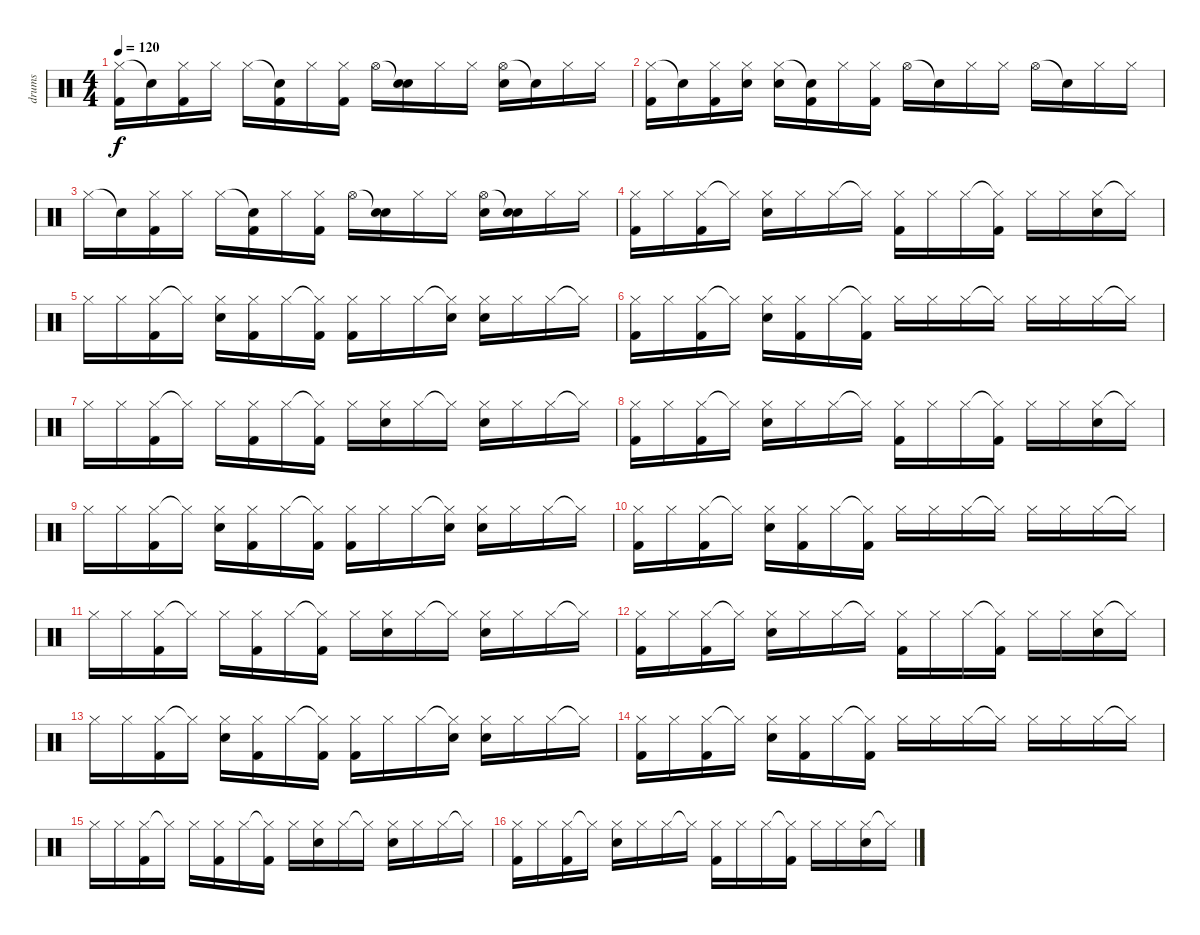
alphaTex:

\track ("drums" "drums") {instrument percussion}
\staff {score}
\articulation defaults
\ts (4 4)
\tempo 120
\clef neutral
\ks c
("Hi-Hat (closed)" "Kick (hit) 2").16{dy f} "Snare (hit)"{t}.16 ("Hi-Hat (closed)" "Kick (hit) 2").16 "Hi-Hat (closed)".16 "Hi-Hat (closed)".16 ("Snare (hit)"{t} "Kick (hit) 2").16 "Hi-Hat (closed)".16 ("Hi-Hat (closed)" "Kick (hit) 2").16 "Hi-Hat (open)".16 ("Snare (hit)"{t} "Snare (hit) 2").16 "Hi-Hat (closed)".16 "Hi-Hat (closed)".16 ("Hi-Hat (open)" "Snare (hit) 2").16 "Snare (hit)"{t}.16 "Hi-Hat (closed)".16 "Hi-Hat (closed)".16 |
("Hi-Hat (closed)" "Kick (hit) 2").16 "Snare (hit)"{t}.16 ("Hi-Hat (closed)" "Kick (hit) 2").16 ("Hi-Hat (closed)" "Snare (hit) 2").16 ("Hi-Hat (closed)" "Snare (hit) 2").16 ("Snare (hit)"{t} "Kick (hit) 2").16 "Hi-Hat (closed)".16 ("Hi-Hat (closed)" "Kick (hit) 2").16 "Hi-Hat (open)".16 "Snare (hit)"{t}.16 "Hi-Hat (closed)".16 "Hi-Hat (closed)".16 "Hi-Hat (open)".16 "Snare (hit)"{t}.16 "Hi-Hat (closed)".16 "Hi-Hat (closed)".16 |
"Hi-Hat (closed)".16 "Snare (hit)"{t}.16 ("Hi-Hat (closed)" "Kick (hit) 2").16 "Hi-Hat (closed)".16 "Hi-Hat (closed)".16 ("Snare (hit)"{t} "Kick (hit) 2").16 "Hi-Hat (closed)".16 ("Hi-Hat (closed)" "Kick (hit) 2").16 "Hi-Hat (open)".16 ("Snare (hit)"{t} "Snare (hit) 2").16 "Hi-Hat (closed)".16 "Hi-Hat (closed)".16 ("Hi-Hat (open)" "Snare (hit) 2").16 ("Snare (hit)"{t} "Snare (hit) 2").16 "Hi-Hat (closed)".16 "Hi-Hat (closed)".16 |
("Hi-Hat (closed)" "Kick (hit) 2").16 "Hi-Hat (closed)".16 ("Hi-Hat (closed)" "Kick (hit) 2").16 "Hi-Hat (closed)"{t}.16 ("Hi-Hat (closed)" "Snare (hit) 2").16 "Hi-Hat (closed)".16 "Hi-Hat (closed)".16 "Hi-Hat (closed)"{t}.16 ("Hi-Hat (closed)" "Kick (hit) 2").16 "Hi-Hat (closed)".16 "Hi-Hat (closed)".16 ("Hi-Hat (closed)"{t} "Kick (hit) 2").16 "Hi-Hat (closed)".16 "Hi-Hat (closed)".16 ("Hi-Hat (closed)" "Snare (hit) 2").16 "Hi-Hat (closed)"{t}.16 |
"Hi-Hat (closed)".16 "Hi-Hat (closed)".16 ("Hi-Hat (closed)" "Kick (hit) 2").16 "Hi-Hat (closed)"{t}.16 ("Hi-Hat (closed)" "Snare (hit) 2").16 ("Hi-Hat (closed)" "Kick (hit) 2").16 "Hi-Hat (closed)".16 ("Hi-Hat (closed)"{t} "Kick (hit) 2").16 ("Hi-Hat (closed)" "Kick (hit) 2").16 "Hi-Hat (closed)".16 "Hi-Hat (closed)".16 ("Hi-Hat (closed)"{t} "Snare (hit) 2").16 ("Hi-Hat (closed)" "Snare (hit) 2").16 "Hi-Hat (closed)".16 "Hi-Hat (closed)".16 "Hi-Hat (closed)"{t}.16 |
("Hi-Hat (closed)" "Kick (hit) 2").16 "Hi-Hat (closed)".16 ("Hi-Hat (closed)" "Kick (hit) 2").16 "Hi-Hat (closed)"{t}.16 ("Hi-Hat (closed)" "Snare (hit) 2").16 ("Hi-Hat (closed)" "Kick (hit) 2").16 "Hi-Hat (closed)".16 ("Hi-Hat (closed)"{t} "Kick (hit) 2").16 "Hi-Hat (closed)".16 "Hi-Hat (closed)".16 "Hi-Hat (closed)".16 "Hi-Hat (closed)"{t}.16 "Hi-Hat (closed)".16 "Hi-Hat (closed)".16 "Hi-Hat (closed)".16 "Hi-Hat (closed)"{t}.16 |
"Hi-Hat (closed)".16 "Hi-Hat (closed)".16 ("Hi-Hat (closed)" "Kick (hit) 2").16 "Hi-Hat (closed)"{t}.16 "Hi-Hat (closed)".16 ("Hi-Hat (closed)" "Kick (hit) 2").16 "Hi-Hat (closed)".16 ("Hi-Hat (closed)"{t} "Kick (hit) 2").16 "Hi-Hat (closed)".16 ("Hi-Hat (closed)" "Snare (hit) 2").16 "Hi-Hat (closed)".16 "Hi-Hat (closed)"{t}.16 ("Hi-Hat (closed)" "Snare (hit) 2").16 "Hi-Hat (closed)".16 "Hi-Hat (closed)".16 "Hi-Hat (closed)"{t}.16 |
("Hi-Hat (closed)" "Kick (hit) 2").16 "Hi-Hat (closed)".16 ("Hi-Hat (closed)" "Kick (hit) 2").16 "Hi-Hat (closed)"{t}.16 ("Hi-Hat (closed)" "Snare (hit) 2").16 "Hi-Hat (closed)".16 "Hi-Hat (closed)".16 "Hi-Hat (closed)"{t}.16 ("Hi-Hat (closed)" "Kick (hit) 2").16 "Hi-Hat (closed)".16 "Hi-Hat (closed)".16 ("Hi-Hat (closed)"{t} "Kick (hit) 2").16 "Hi-Hat (closed)".16 "Hi-Hat (closed)".16 ("Hi-Hat (closed)" "Snare (hit) 2").16 "Hi-Hat (closed)"{t}.16 |
"Hi-Hat (closed)".16 "Hi-Hat (closed)".16 ("Hi-Hat (closed)" "Kick (hit) 2").16 "Hi-Hat (closed)"{t}.16 ("Hi-Hat (closed)" "Snare (hit) 2").16 ("Hi-Hat (closed)" "Kick (hit) 2").16 "Hi-Hat (closed)".16 ("Hi-Hat (closed)"{t} "Kick (hit) 2").16 ("Hi-Hat (closed)" "Kick (hit) 2").16 "Hi-Hat (closed)".16 "Hi-Hat (closed)".16 ("Hi-Hat (closed)"{t} "Snare (hit) 2").16 ("Hi-Hat (closed)" "Snare (hit) 2").16 "Hi-Hat (closed)".16 "Hi-Hat (closed)".16 "Hi-Hat (closed)"{t}.16 |
("Hi-Hat (closed)" "Kick (hit) 2").16 "Hi-Hat (closed)".16 ("Hi-Hat (closed)" "Kick (hit) 2").16 "Hi-Hat (closed)"{t}.16 ("Hi-Hat (closed)" "Snare (hit) 2").16 ("Hi-Hat (closed)" "Kick (hit) 2").16 "Hi-Hat (closed)".16 ("Hi-Hat (closed)"{t} "Kick (hit) 2").16 "Hi-Hat (closed)".16 "Hi-Hat (closed)".16 "Hi-Hat (closed)".16 "Hi-Hat (closed)"{t}.16 "Hi-Hat (closed)".16 "Hi-Hat (closed)".16 "Hi-Hat (closed)".16 "Hi-Hat (closed)"{t}.16 |
"Hi-Hat (closed)".16 "Hi-Hat (closed)".16 ("Hi-Hat (closed)" "Kick (hit) 2").16 "Hi-Hat (closed)"{t}.16 "Hi-Hat (closed)".16 ("Hi-Hat (closed)" "Kick (hit) 2").16 "Hi-Hat (closed)".16 ("Hi-Hat (closed)"{t} "Kick (hit) 2").16 "Hi-Hat (closed)".16 ("Hi-Hat (closed)" "Snare (hit) 2").16 "Hi-Hat (closed)".16 "Hi-Hat (closed)"{t}.16 ("Hi-Hat (closed)" "Snare (hit) 2").16 "Hi-Hat (closed)".16 "Hi-Hat (closed)".16 "Hi-Hat (closed)"{t}.16 |
("Hi-Hat (closed)" "Kick (hit) 2").16 "Hi-Hat (closed)".16 ("Hi-Hat (closed)" "Kick (hit) 2").16 "Hi-Hat (closed)"{t}.16 ("Hi-Hat (closed)" "Snare (hit) 2").16 "Hi-Hat (closed)".16 "Hi-Hat (closed)".16 "Hi-Hat (closed)"{t}.16 ("Hi-Hat (closed)" "Kick (hit) 2").16 "Hi-Hat (closed)".16 "Hi-Hat (closed)".16 ("Hi-Hat (closed)"{t} "Kick (hit) 2").16 "Hi-Hat (closed)".16 "Hi-Hat (closed)".16 ("Hi-Hat (closed)" "Snare (hit) 2").16 "Hi-Hat (closed)"{t}.16 |
"Hi-Hat (closed)".16 "Hi-Hat (closed)".16 ("Hi-Hat (closed)" "Kick (hit) 2").16 "Hi-Hat (closed)"{t}.16 ("Hi-Hat (closed)" "Snare (hit) 2").16 ("Hi-Hat (closed)" "Kick (hit) 2").16 "Hi-Hat (closed)".16 ("Hi-Hat (closed)"{t} "Kick (hit) 2").16 ("Hi-Hat (closed)" "Kick (hit) 2").16 "Hi-Hat (closed)".16 "Hi-Hat (closed)".16 ("Hi-Hat (closed)"{t} "Snare (hit) 2").16 ("Hi-Hat (closed)" "Snare (hit) 2").16 "Hi-Hat (closed)".16 "Hi-Hat (closed)".16 "Hi-Hat (closed)"{t}.16 |
("Hi-Hat (closed)" "Kick (hit) 2").16 "Hi-Hat (closed)".16 ("Hi-Hat (closed)" "Kick (hit) 2").16 "Hi-Hat (closed)"{t}.16 ("Hi-Hat (closed)" "Snare (hit) 2").16 ("Hi-Hat (closed)" "Kick (hit) 2").16 "Hi-Hat (closed)".16 ("Hi-Hat (closed)"{t} "Kick (hit) 2").16 "Hi-Hat (closed)".16 "Hi-Hat (closed)".16 "Hi-Hat (closed)".16 "Hi-Hat (closed)"{t}.16 "Hi-Hat (closed)".16 "Hi-Hat (closed)".16 "Hi-Hat (closed)".16 "Hi-Hat (closed)"{t}.16 |
"Hi-Hat (closed)".16 "Hi-Hat (closed)".16 ("Hi-Hat (closed)" "Kick (hit) 2").16 "Hi-Hat (closed)"{t}.16 "Hi-Hat (closed)".16 ("Hi-Hat (closed)" "Kick (hit) 2").16 "Hi-Hat (closed)".16 ("Hi-Hat (closed)"{t} "Kick (hit) 2").16 "Hi-Hat (closed)".16 ("Hi-Hat (closed)" "Snare (hit) 2").16 "Hi-Hat (closed)".16 "Hi-Hat (closed)"{t}.16 ("Hi-Hat (closed)" "Snare (hit) 2").16 "Hi-Hat (closed)".16 "Hi-Hat (closed)".16 "Hi-Hat (closed)"{t}.16 |
("Hi-Hat (closed)" "Kick (hit) 2").16 "Hi-Hat (closed)".16 ("Hi-Hat (closed)" "Kick (hit) 2").16 "Hi-Hat (closed)"{t}.16 ("Hi-Hat (closed)" "Snare (hit) 2").16 "Hi-Hat (closed)".16 "Hi-Hat (closed)".16 "Hi-Hat (closed)"{t}.16 ("Hi-Hat (closed)" "Kick (hit) 2").16 "Hi-Hat (closed)".16 "Hi-Hat (closed)".16 ("Hi-Hat (closed)"{t} "Kick (hit) 2").16 "Hi-Hat (closed)".16 "Hi-Hat (closed)".16 ("Hi-Hat (closed)" "Snare (hit) 2").16 "Hi-Hat (closed)"{t}.16
